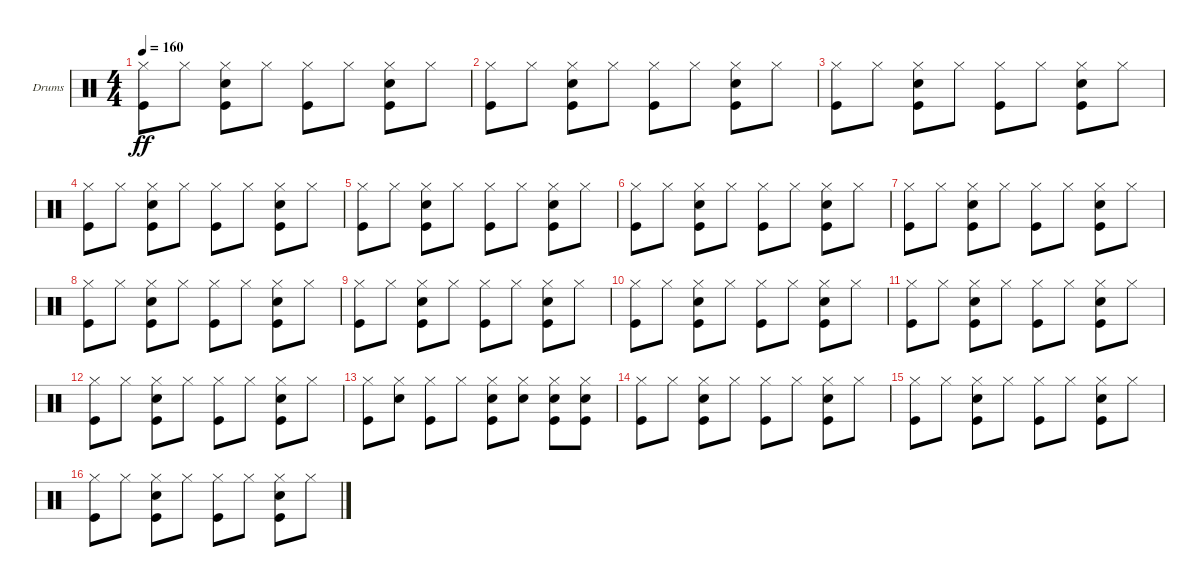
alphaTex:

\bracketExtendMode groupsimilarinstruments
\firstSystemTrackNameOrientation horizontal
\otherSystemsTrackNameOrientation horizontal
\track ("Ударные" "Drums") {instrument percussion}
\staff {score}
\articulation defaults
\ts (4 4)
\tempo 160
\clef neutral
\ks c
("Hi-Hat (closed)" "Kick (hit)").8{dy ff} "Hi-Hat (closed)".8 ("Hi-Hat (closed)" "Snare (hit) 2" "Kick (hit)").8 "Hi-Hat (closed)".8 ("Hi-Hat (closed)" "Kick (hit)").8 "Hi-Hat (closed)".8 ("Hi-Hat (closed)" "Snare (hit) 2" "Kick (hit)").8 "Hi-Hat (closed)".8 |
("Hi-Hat (closed)" "Kick (hit)").8 "Hi-Hat (closed)".8 ("Hi-Hat (closed)" "Snare (hit) 2" "Kick (hit)").8 "Hi-Hat (closed)".8 ("Hi-Hat (closed)" "Kick (hit)").8 "Hi-Hat (closed)".8 ("Hi-Hat (closed)" "Snare (hit) 2" "Kick (hit)").8 "Hi-Hat (closed)".8 |
("Hi-Hat (closed)" "Kick (hit)").8 "Hi-Hat (closed)".8 ("Hi-Hat (closed)" "Snare (hit) 2" "Kick (hit)").8 "Hi-Hat (closed)".8 ("Hi-Hat (closed)" "Kick (hit)").8 "Hi-Hat (closed)".8 ("Hi-Hat (closed)" "Snare (hit) 2" "Kick (hit)").8 "Hi-Hat (closed)".8 |
("Hi-Hat (closed)" "Kick (hit)").8 "Hi-Hat (closed)".8 ("Hi-Hat (closed)" "Snare (hit) 2" "Kick (hit)").8 "Hi-Hat (closed)".8 ("Hi-Hat (closed)" "Kick (hit)").8 "Hi-Hat (closed)".8 ("Hi-Hat (closed)" "Snare (hit) 2" "Kick (hit)").8 "Hi-Hat (closed)".8 |
("Hi-Hat (closed)" "Kick (hit)").8 "Hi-Hat (closed)".8 ("Hi-Hat (closed)" "Snare (hit) 2" "Kick (hit)").8 "Hi-Hat (closed)".8 ("Hi-Hat (closed)" "Kick (hit)").8 "Hi-Hat (closed)".8 ("Hi-Hat (closed)" "Snare (hit) 2" "Kick (hit)").8 "Hi-Hat (closed)".8 |
("Hi-Hat (closed)" "Kick (hit)").8 "Hi-Hat (closed)".8 ("Hi-Hat (closed)" "Snare (hit) 2" "Kick (hit)").8 "Hi-Hat (closed)".8 ("Hi-Hat (closed)" "Kick (hit)").8 "Hi-Hat (closed)".8 ("Hi-Hat (closed)" "Snare (hit) 2" "Kick (hit)").8 "Hi-Hat (closed)".8 |
("Hi-Hat (closed)" "Kick (hit)").8 "Hi-Hat (closed)".8 ("Hi-Hat (closed)" "Snare (hit) 2" "Kick (hit)").8 "Hi-Hat (closed)".8 ("Hi-Hat (closed)" "Kick (hit)").8 "Hi-Hat (closed)".8 ("Hi-Hat (closed)" "Snare (hit) 2" "Kick (hit)").8 "Hi-Hat (closed)".8 |
("Hi-Hat (closed)" "Kick (hit)").8 "Hi-Hat (closed)".8 ("Hi-Hat (closed)" "Snare (hit) 2" "Kick (hit)").8 "Hi-Hat (closed)".8 ("Hi-Hat (closed)" "Kick (hit)").8 "Hi-Hat (closed)".8 ("Hi-Hat (closed)" "Snare (hit) 2" "Kick (hit)").8 "Hi-Hat (closed)".8 |
("Hi-Hat (closed)" "Kick (hit)").8 "Hi-Hat (closed)".8 ("Hi-Hat (closed)" "Snare (hit) 2" "Kick (hit)").8 "Hi-Hat (closed)".8 ("Hi-Hat (closed)" "Kick (hit)").8 "Hi-Hat (closed)".8 ("Hi-Hat (closed)" "Snare (hit) 2" "Kick (hit)").8 "Hi-Hat (closed)".8 |
("Hi-Hat (closed)" "Kick (hit)").8 "Hi-Hat (closed)".8 ("Hi-Hat (closed)" "Snare (hit) 2" "Kick (hit)").8 "Hi-Hat (closed)".8 ("Hi-Hat (closed)" "Kick (hit)").8 "Hi-Hat (closed)".8 ("Hi-Hat (closed)" "Snare (hit) 2" "Kick (hit)").8 "Hi-Hat (closed)".8 |
("Hi-Hat (closed)" "Kick (hit)").8 "Hi-Hat (closed)".8 ("Hi-Hat (closed)" "Snare (hit) 2" "Kick (hit)").8 "Hi-Hat (closed)".8 ("Hi-Hat (closed)" "Kick (hit)").8 "Hi-Hat (closed)".8 ("Hi-Hat (closed)" "Snare (hit) 2" "Kick (hit)").8 "Hi-Hat (closed)".8 |
("Hi-Hat (closed)" "Kick (hit)").8 "Hi-Hat (closed)".8 ("Hi-Hat (closed)" "Snare (hit) 2" "Kick (hit)").8 "Hi-Hat (closed)".8 ("Hi-Hat (closed)" "Kick (hit)").8 "Hi-Hat (closed)".8 ("Hi-Hat (closed)" "Snare (hit) 2" "Kick (hit)").8 "Hi-Hat (closed)".8 |
("Hi-Hat (closed)" "Kick (hit)").8 ("Hi-Hat (closed)" "Snare (hit) 2").8 ("Hi-Hat (closed)" "Kick (hit)").8 "Hi-Hat (closed)".8 ("Hi-Hat (closed)" "Snare (hit) 2" "Kick (hit)").8 ("Hi-Hat (closed)" "Snare (hit) 2").8 ("Hi-Hat (closed)" "Snare (hit) 2" "Kick (hit)").8 ("Hi-Hat (closed)" "Snare (hit) 2" "Kick (hit)").8 |
("Hi-Hat (closed)" "Kick (hit)").8 "Hi-Hat (closed)".8 ("Hi-Hat (closed)" "Snare (hit) 2" "Kick (hit)").8 "Hi-Hat (closed)".8 ("Hi-Hat (closed)" "Kick (hit)").8 "Hi-Hat (closed)".8 ("Hi-Hat (closed)" "Snare (hit) 2" "Kick (hit)").8 "Hi-Hat (closed)".8 |
("Hi-Hat (closed)" "Kick (hit)").8 "Hi-Hat (closed)".8 ("Hi-Hat (closed)" "Snare (hit) 2" "Kick (hit)").8 "Hi-Hat (closed)".8 ("Hi-Hat (closed)" "Kick (hit)").8 "Hi-Hat (closed)".8 ("Hi-Hat (closed)" "Snare (hit) 2" "Kick (hit)").8 "Hi-Hat (closed)".8 |
("Hi-Hat (closed)" "Kick (hit)").8 "Hi-Hat (closed)".8 ("Hi-Hat (closed)" "Snare (hit) 2" "Kick (hit)").8 "Hi-Hat (closed)".8 ("Hi-Hat (closed)" "Kick (hit)").8 "Hi-Hat (closed)".8 ("Hi-Hat (closed)" "Snare (hit) 2" "Kick (hit)").8 "Hi-Hat (closed)".8
